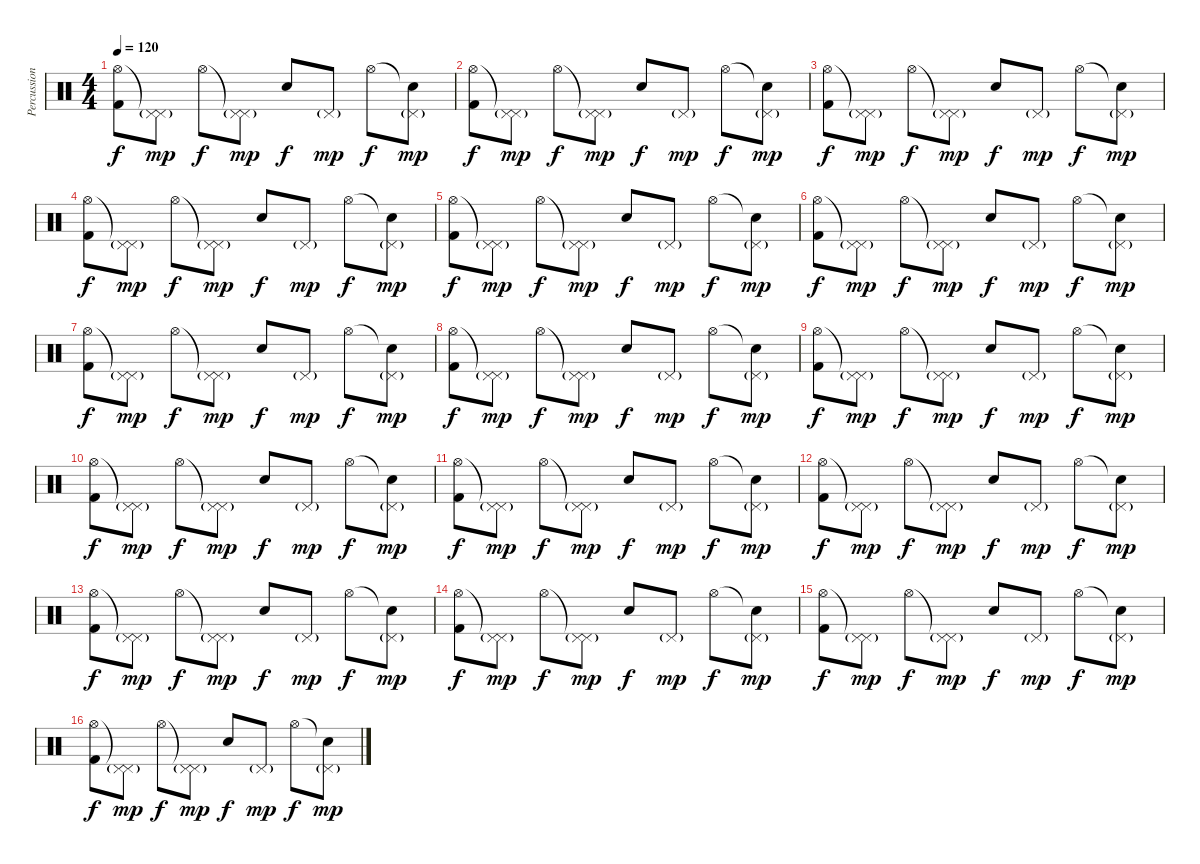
\track ("Percussion" "Percussion") {instrument percussion}
\staff {score}
\articulation defaults
\ts (4 4)
\tempo 120
\clef neutral
\ks c
("Hi-Hat (open)" "Kick (hit) 2").8{dy f} ("Pedal Hi-Hat (hit)"{t} "Pedal Hi-Hat (hit)"{g}).8{dy mp} "Hi-Hat (open)".8{dy f} ("Pedal Hi-Hat (hit)"{t} "Pedal Hi-Hat (hit)"{g}).8{dy mp} "Snare (hit) 2".8{dy f} "Pedal Hi-Hat (hit)"{g}.8{dy mp} "Hi-Hat (open)".8{dy f} ("Snare (hit)"{t} "Pedal Hi-Hat (hit)"{g}).8{dy mp} |
("Hi-Hat (open)" "Kick (hit) 2").8{dy f} ("Pedal Hi-Hat (hit)"{t} "Pedal Hi-Hat (hit)"{g}).8{dy mp} "Hi-Hat (open)".8{dy f} ("Pedal Hi-Hat (hit)"{t} "Pedal Hi-Hat (hit)"{g}).8{dy mp} "Snare (hit) 2".8{dy f} "Pedal Hi-Hat (hit)"{g}.8{dy mp} "Hi-Hat (open)".8{dy f} ("Snare (hit)"{t} "Pedal Hi-Hat (hit)"{g}).8{dy mp} |
("Hi-Hat (open)" "Kick (hit) 2").8{dy f} ("Pedal Hi-Hat (hit)"{t} "Pedal Hi-Hat (hit)"{g}).8{dy mp} "Hi-Hat (open)".8{dy f} ("Pedal Hi-Hat (hit)"{t} "Pedal Hi-Hat (hit)"{g}).8{dy mp} "Snare (hit) 2".8{dy f} "Pedal Hi-Hat (hit)"{g}.8{dy mp} "Hi-Hat (open)".8{dy f} ("Snare (hit)"{t} "Pedal Hi-Hat (hit)"{g}).8{dy mp} |
("Hi-Hat (open)" "Kick (hit) 2").8{dy f} ("Pedal Hi-Hat (hit)"{t} "Pedal Hi-Hat (hit)"{g}).8{dy mp} "Hi-Hat (open)".8{dy f} ("Pedal Hi-Hat (hit)"{t} "Pedal Hi-Hat (hit)"{g}).8{dy mp} "Snare (hit) 2".8{dy f} "Pedal Hi-Hat (hit)"{g}.8{dy mp} "Hi-Hat (open)".8{dy f} ("Snare (hit)"{t} "Pedal Hi-Hat (hit)"{g}).8{dy mp} |
("Hi-Hat (open)" "Kick (hit) 2").8{dy f} ("Pedal Hi-Hat (hit)"{t} "Pedal Hi-Hat (hit)"{g}).8{dy mp} "Hi-Hat (open)".8{dy f} ("Pedal Hi-Hat (hit)"{t} "Pedal Hi-Hat (hit)"{g}).8{dy mp} "Snare (hit) 2".8{dy f} "Pedal Hi-Hat (hit)"{g}.8{dy mp} "Hi-Hat (open)".8{dy f} ("Snare (hit)"{t} "Pedal Hi-Hat (hit)"{g}).8{dy mp} |
("Hi-Hat (open)" "Kick (hit) 2").8{dy f} ("Pedal Hi-Hat (hit)"{t} "Pedal Hi-Hat (hit)"{g}).8{dy mp} "Hi-Hat (open)".8{dy f} ("Pedal Hi-Hat (hit)"{t} "Pedal Hi-Hat (hit)"{g}).8{dy mp} "Snare (hit) 2".8{dy f} "Pedal Hi-Hat (hit)"{g}.8{dy mp} "Hi-Hat (open)".8{dy f} ("Snare (hit)"{t} "Pedal Hi-Hat (hit)"{g}).8{dy mp} |
("Hi-Hat (open)" "Kick (hit) 2").8{dy f} ("Pedal Hi-Hat (hit)"{t} "Pedal Hi-Hat (hit)"{g}).8{dy mp} "Hi-Hat (open)".8{dy f} ("Pedal Hi-Hat (hit)"{t} "Pedal Hi-Hat (hit)"{g}).8{dy mp} "Snare (hit) 2".8{dy f} "Pedal Hi-Hat (hit)"{g}.8{dy mp} "Hi-Hat (open)".8{dy f} ("Snare (hit)"{t} "Pedal Hi-Hat (hit)"{g}).8{dy mp} |
("Hi-Hat (open)" "Kick (hit) 2").8{dy f} ("Pedal Hi-Hat (hit)"{t} "Pedal Hi-Hat (hit)"{g}).8{dy mp} "Hi-Hat (open)".8{dy f} ("Pedal Hi-Hat (hit)"{t} "Pedal Hi-Hat (hit)"{g}).8{dy mp} "Snare (hit) 2".8{dy f} "Pedal Hi-Hat (hit)"{g}.8{dy mp} "Hi-Hat (open)".8{dy f} ("Snare (hit)"{t} "Pedal Hi-Hat (hit)"{g}).8{dy mp} |
("Hi-Hat (open)" "Kick (hit) 2").8{dy f} ("Pedal Hi-Hat (hit)"{t} "Pedal Hi-Hat (hit)"{g}).8{dy mp} "Hi-Hat (open)".8{dy f} ("Pedal Hi-Hat (hit)"{t} "Pedal Hi-Hat (hit)"{g}).8{dy mp} "Snare (hit) 2".8{dy f} "Pedal Hi-Hat (hit)"{g}.8{dy mp} "Hi-Hat (open)".8{dy f} ("Snare (hit)"{t} "Pedal Hi-Hat (hit)"{g}).8{dy mp} |
("Hi-Hat (open)" "Kick (hit) 2").8{dy f} ("Pedal Hi-Hat (hit)"{t} "Pedal Hi-Hat (hit)"{g}).8{dy mp} "Hi-Hat (open)".8{dy f} ("Pedal Hi-Hat (hit)"{t} "Pedal Hi-Hat (hit)"{g}).8{dy mp} "Snare (hit) 2".8{dy f} "Pedal Hi-Hat (hit)"{g}.8{dy mp} "Hi-Hat (open)".8{dy f} ("Snare (hit)"{t} "Pedal Hi-Hat (hit)"{g}).8{dy mp} |
("Hi-Hat (open)" "Kick (hit) 2").8{dy f} ("Pedal Hi-Hat (hit)"{t} "Pedal Hi-Hat (hit)"{g}).8{dy mp} "Hi-Hat (open)".8{dy f} ("Pedal Hi-Hat (hit)"{t} "Pedal Hi-Hat (hit)"{g}).8{dy mp} "Snare (hit) 2".8{dy f} "Pedal Hi-Hat (hit)"{g}.8{dy mp} "Hi-Hat (open)".8{dy f} ("Snare (hit)"{t} "Pedal Hi-Hat (hit)"{g}).8{dy mp} |
("Hi-Hat (open)" "Kick (hit) 2").8{dy f volume 5} ("Pedal Hi-Hat (hit)"{t} "Pedal Hi-Hat (hit)"{g}).8{dy mp} "Hi-Hat (open)".8{dy f} ("Pedal Hi-Hat (hit)"{t} "Pedal Hi-Hat (hit)"{g}).8{dy mp} "Snare (hit) 2".8{dy f} "Pedal Hi-Hat (hit)"{g}.8{dy mp} "Hi-Hat (open)".8{dy f} ("Snare (hit)"{t} "Pedal Hi-Hat (hit)"{g}).8{dy mp} |
("Hi-Hat (open)" "Kick (hit) 2").8{dy f} ("Pedal Hi-Hat (hit)"{t} "Pedal Hi-Hat (hit)"{g}).8{dy mp} "Hi-Hat (open)".8{dy f} ("Pedal Hi-Hat (hit)"{t} "Pedal Hi-Hat (hit)"{g}).8{dy mp} "Snare (hit) 2".8{dy f} "Pedal Hi-Hat (hit)"{g}.8{dy mp} "Hi-Hat (open)".8{dy f} ("Snare (hit)"{t} "Pedal Hi-Hat (hit)"{g}).8{dy mp} |
("Hi-Hat (open)" "Kick (hit) 2").8{dy f} ("Pedal Hi-Hat (hit)"{t} "Pedal Hi-Hat (hit)"{g}).8{dy mp} "Hi-Hat (open)".8{dy f} ("Pedal Hi-Hat (hit)"{t} "Pedal Hi-Hat (hit)"{g}).8{dy mp} "Snare (hit) 2".8{dy f} "Pedal Hi-Hat (hit)"{g}.8{dy mp} "Hi-Hat (open)".8{dy f} ("Snare (hit)"{t} "Pedal Hi-Hat (hit)"{g}).8{dy mp} |
("Hi-Hat (open)" "Kick (hit) 2").8{dy f} ("Pedal Hi-Hat (hit)"{t} "Pedal Hi-Hat (hit)"{g}).8{dy mp} "Hi-Hat (open)".8{dy f} ("Pedal Hi-Hat (hit)"{t} "Pedal Hi-Hat (hit)"{g}).8{dy mp} "Snare (hit) 2".8{dy f} "Pedal Hi-Hat (hit)"{g}.8{dy mp} "Hi-Hat (open)".8{dy f} ("Snare (hit)"{t} "Pedal Hi-Hat (hit)"{g}).8{dy mp} |
("Hi-Hat (open)" "Kick (hit) 2").8{dy f volume 2} ("Pedal Hi-Hat (hit)"{t} "Pedal Hi-Hat (hit)"{g}).8{dy mp} "Hi-Hat (open)".8{dy f} ("Pedal Hi-Hat (hit)"{t} "Pedal Hi-Hat (hit)"{g}).8{dy mp} "Snare (hit) 2".8{dy f} "Pedal Hi-Hat (hit)"{g}.8{dy mp} "Hi-Hat (open)".8{dy f} ("Snare (hit)"{t} "Pedal Hi-Hat (hit)"{g}).8{dy mp}
